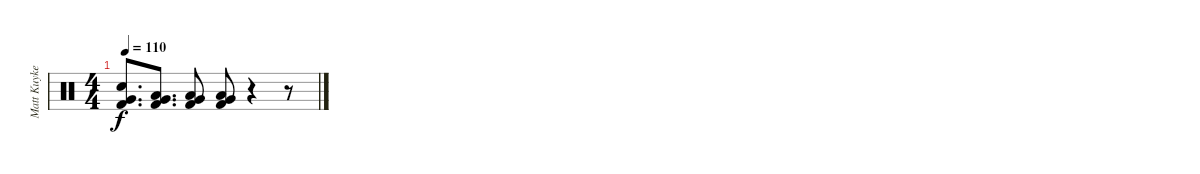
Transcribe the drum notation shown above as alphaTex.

\track ("Matt Kuykendall" "Matt Kuyke") {instrument percussion}
\staff {score}
\articulation defaults
\ts (4 4)
\tempo 110
\clef neutral
\ks c
("Electric Snare (hit)" "Very Low Tom (hit)" "Kick (hit) 2").8{d dy f} ("Very Low Tom (hit)" "Low Floor Tom (hit)" "Kick (hit) 2").8{d} ("Very Low Tom (hit)" "Low Floor Tom (hit)" "Kick (hit) 2").8 ("Very Low Tom (hit)" "Low Floor Tom (hit)" "Kick (hit) 2").8 r.4 r.8
